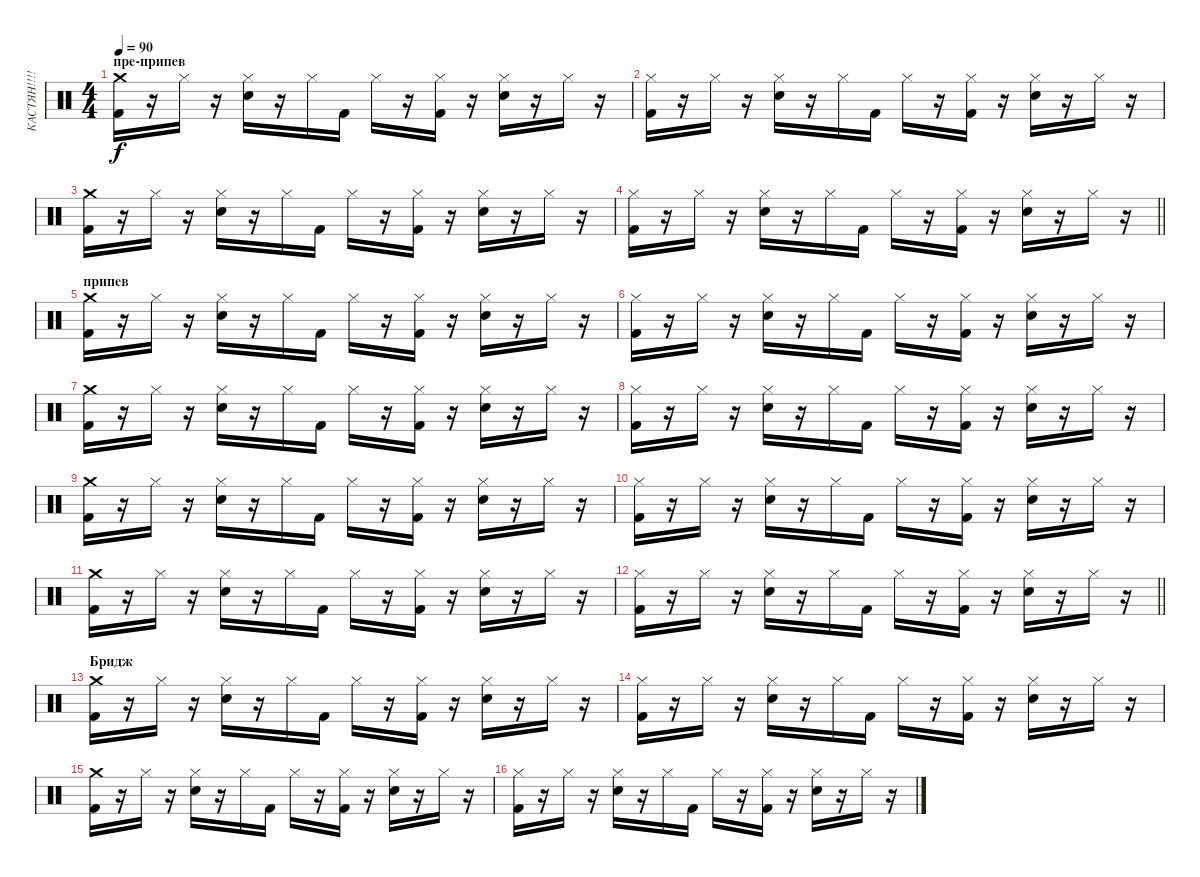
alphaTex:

\track ("КАСТЯН!!!!" "КАСТЯН!!!!") {instrument percussion}
\staff {score}
\articulation defaults
\ts (4 4)
\section ("" "пре-припев")
\tempo 90
\clef neutral
\ks c
("Crash medium (hit)" "Kick (hit) 2").16{dy f} r.16 "Hi-Hat (closed)".16 r.16 ("Hi-Hat (closed)" "Snare (hit) 2").16 r.16 "Hi-Hat (closed)".16 "Kick (hit) 2".16 "Hi-Hat (closed)".16 r.16 ("Hi-Hat (closed)" "Kick (hit) 2").16 r.16 ("Hi-Hat (closed)" "Snare (hit) 2").16 r.16 "Hi-Hat (closed)".16 r.16 |
("Hi-Hat (closed)" "Kick (hit) 2").16 r.16 "Hi-Hat (closed)".16 r.16 ("Hi-Hat (closed)" "Snare (hit) 2").16 r.16 "Hi-Hat (closed)".16 "Kick (hit) 2".16 "Hi-Hat (closed)".16 r.16 ("Hi-Hat (closed)" "Kick (hit) 2").16 r.16 ("Hi-Hat (closed)" "Snare (hit) 2").16 r.16 "Hi-Hat (closed)".16 r.16 |
("Crash medium (hit)" "Kick (hit) 2").16 r.16 "Hi-Hat (closed)".16 r.16 ("Hi-Hat (closed)" "Snare (hit) 2").16 r.16 "Hi-Hat (closed)".16 "Kick (hit) 2".16 "Hi-Hat (closed)".16 r.16 ("Hi-Hat (closed)" "Kick (hit) 2").16 r.16 ("Hi-Hat (closed)" "Snare (hit) 2").16 r.16 "Hi-Hat (closed)".16 r.16 |
\barLineRight lightlight
("Hi-Hat (closed)" "Kick (hit) 2").16 r.16 "Hi-Hat (closed)".16 r.16 ("Hi-Hat (closed)" "Snare (hit) 2").16 r.16 "Hi-Hat (closed)".16 "Kick (hit) 2".16 "Hi-Hat (closed)".16 r.16 ("Hi-Hat (closed)" "Kick (hit) 2").16 r.16 ("Hi-Hat (closed)" "Snare (hit) 2").16 r.16 "Hi-Hat (closed)".16 r.16 |
\section ("" "припев")
("Crash medium (hit)" "Kick (hit) 2").16 r.16 "Hi-Hat (closed)".16 r.16 ("Hi-Hat (closed)" "Snare (hit) 2").16 r.16 "Hi-Hat (closed)".16 "Kick (hit) 2".16 "Hi-Hat (closed)".16 r.16 ("Hi-Hat (closed)" "Kick (hit) 2").16 r.16 ("Hi-Hat (closed)" "Snare (hit) 2").16 r.16 "Hi-Hat (closed)".16 r.16 |
("Hi-Hat (closed)" "Kick (hit) 2").16 r.16 "Hi-Hat (closed)".16 r.16 ("Hi-Hat (closed)" "Snare (hit) 2").16 r.16 "Hi-Hat (closed)".16 "Kick (hit) 2".16 "Hi-Hat (closed)".16 r.16 ("Hi-Hat (closed)" "Kick (hit) 2").16 r.16 ("Hi-Hat (closed)" "Snare (hit) 2").16 r.16 "Hi-Hat (closed)".16 r.16 |
("Crash medium (hit)" "Kick (hit) 2").16 r.16 "Hi-Hat (closed)".16 r.16 ("Hi-Hat (closed)" "Snare (hit) 2").16 r.16 "Hi-Hat (closed)".16 "Kick (hit) 2".16 "Hi-Hat (closed)".16 r.16 ("Hi-Hat (closed)" "Kick (hit) 2").16 r.16 ("Hi-Hat (closed)" "Snare (hit) 2").16 r.16 "Hi-Hat (closed)".16 r.16 |
("Hi-Hat (closed)" "Kick (hit) 2").16 r.16 "Hi-Hat (closed)".16 r.16 ("Hi-Hat (closed)" "Snare (hit) 2").16 r.16 "Hi-Hat (closed)".16 "Kick (hit) 2".16 "Hi-Hat (closed)".16 r.16 ("Hi-Hat (closed)" "Kick (hit) 2").16 r.16 ("Hi-Hat (closed)" "Snare (hit) 2").16 r.16 "Hi-Hat (closed)".16 r.16 |
("Crash medium (hit)" "Kick (hit) 2").16 r.16 "Hi-Hat (closed)".16 r.16 ("Hi-Hat (closed)" "Snare (hit) 2").16 r.16 "Hi-Hat (closed)".16 "Kick (hit) 2".16 "Hi-Hat (closed)".16 r.16 ("Hi-Hat (closed)" "Kick (hit) 2").16 r.16 ("Hi-Hat (closed)" "Snare (hit) 2").16 r.16 "Hi-Hat (closed)".16 r.16 |
("Hi-Hat (closed)" "Kick (hit) 2").16 r.16 "Hi-Hat (closed)".16 r.16 ("Hi-Hat (closed)" "Snare (hit) 2").16 r.16 "Hi-Hat (closed)".16 "Kick (hit) 2".16 "Hi-Hat (closed)".16 r.16 ("Hi-Hat (closed)" "Kick (hit) 2").16 r.16 ("Hi-Hat (closed)" "Snare (hit) 2").16 r.16 "Hi-Hat (closed)".16 r.16 |
("Crash medium (hit)" "Kick (hit) 2").16 r.16 "Hi-Hat (closed)".16 r.16 ("Hi-Hat (closed)" "Snare (hit) 2").16 r.16 "Hi-Hat (closed)".16 "Kick (hit) 2".16 "Hi-Hat (closed)".16 r.16 ("Hi-Hat (closed)" "Kick (hit) 2").16 r.16 ("Hi-Hat (closed)" "Snare (hit) 2").16 r.16 "Hi-Hat (closed)".16 r.16 |
\barLineRight lightlight
("Hi-Hat (closed)" "Kick (hit) 2").16 r.16 "Hi-Hat (closed)".16 r.16 ("Hi-Hat (closed)" "Snare (hit) 2").16 r.16 "Hi-Hat (closed)".16 "Kick (hit) 2".16 "Hi-Hat (closed)".16 r.16 ("Hi-Hat (closed)" "Kick (hit) 2").16 r.16 ("Hi-Hat (closed)" "Snare (hit) 2").16 r.16 "Hi-Hat (closed)".16 r.16 |
\section ("" "Бридж")
("Crash medium (hit)" "Kick (hit) 2").16 r.16 "Hi-Hat (closed)".16 r.16 ("Hi-Hat (closed)" "Snare (hit) 2").16 r.16 "Hi-Hat (closed)".16 "Kick (hit) 2".16 "Hi-Hat (closed)".16 r.16 ("Hi-Hat (closed)" "Kick (hit) 2").16 r.16 ("Hi-Hat (closed)" "Snare (hit) 2").16 r.16 "Hi-Hat (closed)".16 r.16 |
("Hi-Hat (closed)" "Kick (hit) 2").16 r.16 "Hi-Hat (closed)".16 r.16 ("Hi-Hat (closed)" "Snare (hit) 2").16 r.16 "Hi-Hat (closed)".16 "Kick (hit) 2".16 "Hi-Hat (closed)".16 r.16 ("Hi-Hat (closed)" "Kick (hit) 2").16 r.16 ("Hi-Hat (closed)" "Snare (hit) 2").16 r.16 "Hi-Hat (closed)".16 r.16 |
("Crash medium (hit)" "Kick (hit) 2").16 r.16 "Hi-Hat (closed)".16 r.16 ("Hi-Hat (closed)" "Snare (hit) 2").16 r.16 "Hi-Hat (closed)".16 "Kick (hit) 2".16 "Hi-Hat (closed)".16 r.16 ("Hi-Hat (closed)" "Kick (hit) 2").16 r.16 ("Hi-Hat (closed)" "Snare (hit) 2").16 r.16 "Hi-Hat (closed)".16 r.16 |
("Hi-Hat (closed)" "Kick (hit) 2").16 r.16 "Hi-Hat (closed)".16 r.16 ("Hi-Hat (closed)" "Snare (hit) 2").16 r.16 "Hi-Hat (closed)".16 "Kick (hit) 2".16 "Hi-Hat (closed)".16 r.16 ("Hi-Hat (closed)" "Kick (hit) 2").16 r.16 ("Hi-Hat (closed)" "Snare (hit) 2").16 r.16 "Hi-Hat (closed)".16 r.16
